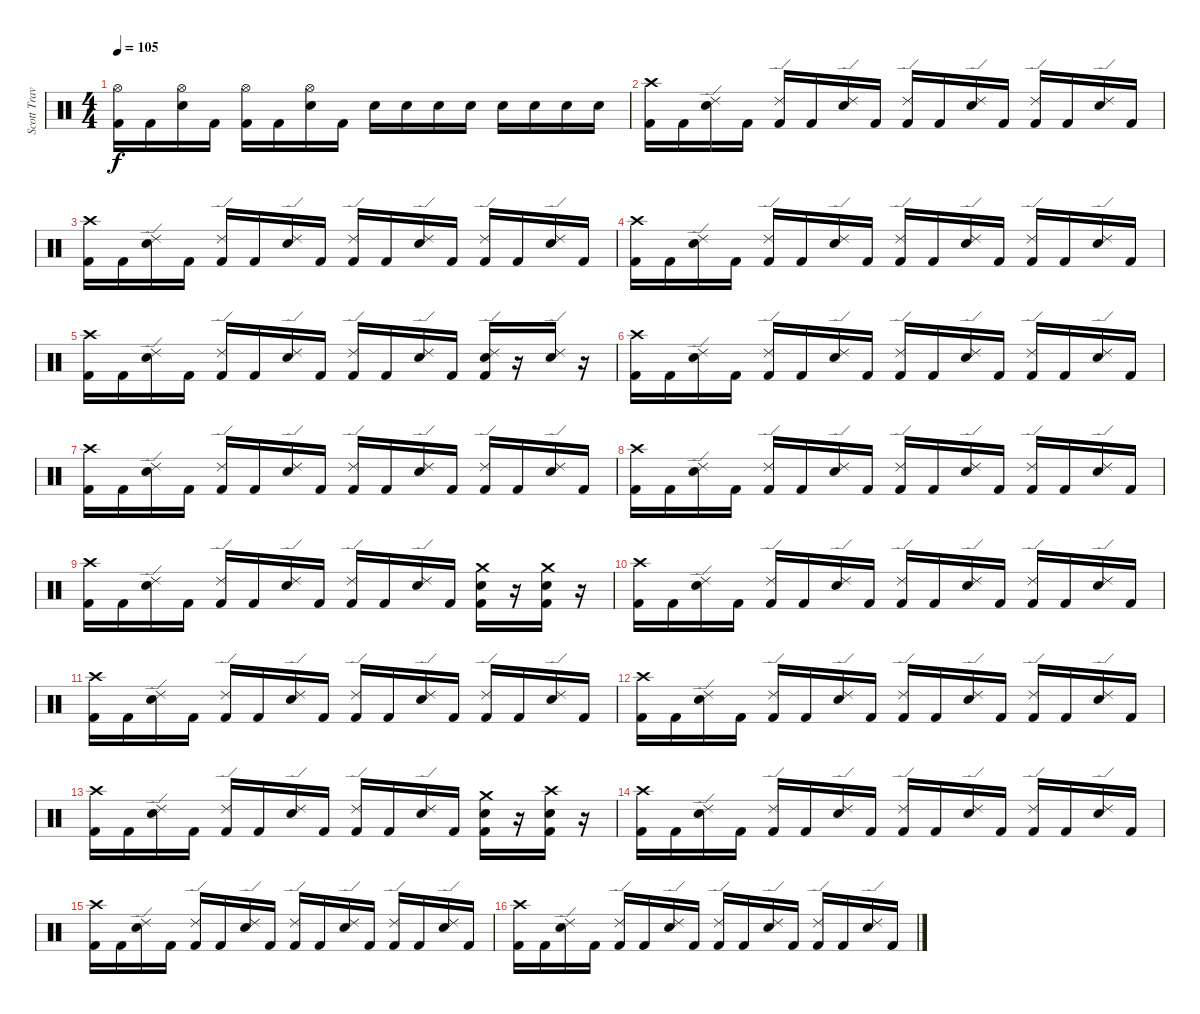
\track ("Scott Travis" "Scott Trav") {instrument percussion}
\staff {score}
\articulation defaults
\ts (4 4)
\tempo 105
\clef neutral
\ks c
("Hi-Hat (open)" "Kick (hit) 2").16{dy f} "Kick (hit) 2".16 ("Hi-Hat (open)" "Snare (hit) 2").16 "Kick (hit) 2".16 ("Hi-Hat (open)" "Kick (hit) 2").16 "Kick (hit) 2".16 ("Hi-Hat (open)" "Snare (hit) 2").16 "Kick (hit) 2".16 "Snare (hit) 2".16 "Snare (hit) 2".16 "Snare (hit) 2".16 "Snare (hit) 2".16 "Snare (hit) 2".16 "Snare (hit) 2".16 "Snare (hit) 2".16 "Snare (hit) 2".16 |
("Crash high (hit)" "Kick (hit) 2").16 "Kick (hit) 2".16 ("Ride (edge) 2" "Snare (hit) 2").16 "Kick (hit) 2".16 ("Ride (edge) 2" "Kick (hit) 2").16 "Kick (hit) 2".16 ("Ride (edge) 2" "Snare (hit) 2").16 "Kick (hit) 2".16 ("Ride (edge) 2" "Kick (hit) 2").16 "Kick (hit) 2".16 ("Ride (edge) 2" "Snare (hit) 2").16 "Kick (hit) 2".16 ("Ride (edge) 2" "Kick (hit) 2").16 "Kick (hit) 2".16 ("Ride (edge) 2" "Snare (hit) 2").16 "Kick (hit) 2".16 |
("Crash high (hit)" "Kick (hit) 2").16 "Kick (hit) 2".16 ("Ride (edge) 2" "Snare (hit) 2").16 "Kick (hit) 2".16 ("Ride (edge) 2" "Kick (hit) 2").16 "Kick (hit) 2".16 ("Ride (edge) 2" "Snare (hit) 2").16 "Kick (hit) 2".16 ("Ride (edge) 2" "Kick (hit) 2").16 "Kick (hit) 2".16 ("Ride (edge) 2" "Snare (hit) 2").16 "Kick (hit) 2".16 ("Ride (edge) 2" "Kick (hit) 2").16 "Kick (hit) 2".16 ("Ride (edge) 2" "Snare (hit) 2").16 "Kick (hit) 2".16 |
("Crash high (hit)" "Kick (hit) 2").16 "Kick (hit) 2".16 ("Ride (edge) 2" "Snare (hit) 2").16 "Kick (hit) 2".16 ("Ride (edge) 2" "Kick (hit) 2").16 "Kick (hit) 2".16 ("Ride (edge) 2" "Snare (hit) 2").16 "Kick (hit) 2".16 ("Ride (edge) 2" "Kick (hit) 2").16 "Kick (hit) 2".16 ("Ride (edge) 2" "Snare (hit) 2").16 "Kick (hit) 2".16 ("Ride (edge) 2" "Kick (hit) 2").16 "Kick (hit) 2".16 ("Ride (edge) 2" "Snare (hit) 2").16 "Kick (hit) 2".16 |
("Crash high (hit)" "Kick (hit) 2").16 "Kick (hit) 2".16 ("Ride (edge) 2" "Snare (hit) 2").16 "Kick (hit) 2".16 ("Ride (edge) 2" "Kick (hit) 2").16 "Kick (hit) 2".16 ("Ride (edge) 2" "Snare (hit) 2").16 "Kick (hit) 2".16 ("Ride (edge) 2" "Kick (hit) 2").16 "Kick (hit) 2".16 ("Ride (edge) 2" "Snare (hit) 2").16 "Kick (hit) 2".16 ("Ride (edge) 2" "Snare (hit) 2" "Kick (hit) 2").16 r.16 ("Ride (edge) 2" "Snare (hit) 2").16 r.16 |
("Crash high (hit)" "Kick (hit) 2").16 "Kick (hit) 2".16 ("Ride (edge) 2" "Snare (hit) 2").16 "Kick (hit) 2".16 ("Ride (edge) 2" "Kick (hit) 2").16 "Kick (hit) 2".16 ("Ride (edge) 2" "Snare (hit) 2").16 "Kick (hit) 2".16 ("Ride (edge) 2" "Kick (hit) 2").16 "Kick (hit) 2".16 ("Ride (edge) 2" "Snare (hit) 2").16 "Kick (hit) 2".16 ("Ride (edge) 2" "Kick (hit) 2").16 "Kick (hit) 2".16 ("Ride (edge) 2" "Snare (hit) 2").16 "Kick (hit) 2".16 |
("Crash high (hit)" "Kick (hit) 2").16 "Kick (hit) 2".16 ("Ride (edge) 2" "Snare (hit) 2").16 "Kick (hit) 2".16 ("Ride (edge) 2" "Kick (hit) 2").16 "Kick (hit) 2".16 ("Ride (edge) 2" "Snare (hit) 2").16 "Kick (hit) 2".16 ("Ride (edge) 2" "Kick (hit) 2").16 "Kick (hit) 2".16 ("Ride (edge) 2" "Snare (hit) 2").16 "Kick (hit) 2".16 ("Ride (edge) 2" "Kick (hit) 2").16 "Kick (hit) 2".16 ("Ride (edge) 2" "Snare (hit) 2").16 "Kick (hit) 2".16 |
("Crash high (hit)" "Kick (hit) 2").16 "Kick (hit) 2".16 ("Ride (edge) 2" "Snare (hit) 2").16 "Kick (hit) 2".16 ("Ride (edge) 2" "Kick (hit) 2").16 "Kick (hit) 2".16 ("Ride (edge) 2" "Snare (hit) 2").16 "Kick (hit) 2".16 ("Ride (edge) 2" "Kick (hit) 2").16 "Kick (hit) 2".16 ("Ride (edge) 2" "Snare (hit) 2").16 "Kick (hit) 2".16 ("Ride (edge) 2" "Kick (hit) 2").16 "Kick (hit) 2".16 ("Ride (edge) 2" "Snare (hit) 2").16 "Kick (hit) 2".16 |
("Crash high (hit)" "Kick (hit) 2").16 "Kick (hit) 2".16 ("Ride (edge) 2" "Snare (hit) 2").16 "Kick (hit) 2".16 ("Ride (edge) 2" "Kick (hit) 2").16 "Kick (hit) 2".16 ("Ride (edge) 2" "Snare (hit) 2").16 "Kick (hit) 2".16 ("Ride (edge) 2" "Kick (hit) 2").16 "Kick (hit) 2".16 ("Ride (edge) 2" "Snare (hit) 2").16 "Kick (hit) 2".16 ("Crash medium (hit)" "Snare (hit) 2" "Kick (hit) 2").16 r.16 ("Crash medium (hit)" "Snare (hit) 2" "Kick (hit) 2").16 r.16 |
("Crash high (hit)" "Kick (hit) 2").16 "Kick (hit) 2".16 ("Ride (edge) 2" "Snare (hit) 2").16 "Kick (hit) 2".16 ("Ride (edge) 2" "Kick (hit) 2").16 "Kick (hit) 2".16 ("Ride (edge) 2" "Snare (hit) 2").16 "Kick (hit) 2".16 ("Ride (edge) 2" "Kick (hit) 2").16 "Kick (hit) 2".16 ("Ride (edge) 2" "Snare (hit) 2").16 "Kick (hit) 2".16 ("Ride (edge) 2" "Kick (hit) 2").16 "Kick (hit) 2".16 ("Ride (edge) 2" "Snare (hit) 2").16 "Kick (hit) 2".16 |
("Crash high (hit)" "Kick (hit) 2").16 "Kick (hit) 2".16 ("Ride (edge) 2" "Snare (hit) 2").16 "Kick (hit) 2".16 ("Ride (edge) 2" "Kick (hit) 2").16 "Kick (hit) 2".16 ("Ride (edge) 2" "Snare (hit) 2").16 "Kick (hit) 2".16 ("Ride (edge) 2" "Kick (hit) 2").16 "Kick (hit) 2".16 ("Ride (edge) 2" "Snare (hit) 2").16 "Kick (hit) 2".16 ("Ride (edge) 2" "Kick (hit) 2").16 "Kick (hit) 2".16 ("Ride (edge) 2" "Snare (hit) 2").16 "Kick (hit) 2".16 |
("Crash high (hit)" "Kick (hit) 2").16 "Kick (hit) 2".16 ("Ride (edge) 2" "Snare (hit) 2").16 "Kick (hit) 2".16 ("Ride (edge) 2" "Kick (hit) 2").16 "Kick (hit) 2".16 ("Ride (edge) 2" "Snare (hit) 2").16 "Kick (hit) 2".16 ("Ride (edge) 2" "Kick (hit) 2").16 "Kick (hit) 2".16 ("Ride (edge) 2" "Snare (hit) 2").16 "Kick (hit) 2".16 ("Ride (edge) 2" "Kick (hit) 2").16 "Kick (hit) 2".16 ("Ride (edge) 2" "Snare (hit) 2").16 "Kick (hit) 2".16 |
("Crash high (hit)" "Kick (hit) 2").16 "Kick (hit) 2".16 ("Ride (edge) 2" "Snare (hit) 2").16 "Kick (hit) 2".16 ("Ride (edge) 2" "Kick (hit) 2").16 "Kick (hit) 2".16 ("Ride (edge) 2" "Snare (hit) 2").16 "Kick (hit) 2".16 ("Ride (edge) 2" "Kick (hit) 2").16 "Kick (hit) 2".16 ("Ride (edge) 2" "Snare (hit) 2").16 "Kick (hit) 2".16 ("Crash medium (hit)" "Snare (hit) 2" "Kick (hit) 2").16 r.16 ("Crash high (hit)" "Snare (hit) 2" "Kick (hit) 2").16 r.16 |
("Crash high (hit)" "Kick (hit) 2").16 "Kick (hit) 2".16 ("Ride (edge) 2" "Snare (hit) 2").16 "Kick (hit) 2".16 ("Ride (edge) 2" "Kick (hit) 2").16 "Kick (hit) 2".16 ("Ride (edge) 2" "Snare (hit) 2").16 "Kick (hit) 2".16 ("Ride (edge) 2" "Kick (hit) 2").16 "Kick (hit) 2".16 ("Ride (edge) 2" "Snare (hit) 2").16 "Kick (hit) 2".16 ("Ride (edge) 2" "Kick (hit) 2").16 "Kick (hit) 2".16 ("Ride (edge) 2" "Snare (hit) 2").16 "Kick (hit) 2".16 |
("Crash high (hit)" "Kick (hit) 2").16 "Kick (hit) 2".16 ("Ride (edge) 2" "Snare (hit) 2").16 "Kick (hit) 2".16 ("Ride (edge) 2" "Kick (hit) 2").16 "Kick (hit) 2".16 ("Ride (edge) 2" "Snare (hit) 2").16 "Kick (hit) 2".16 ("Ride (edge) 2" "Kick (hit) 2").16 "Kick (hit) 2".16 ("Ride (edge) 2" "Snare (hit) 2").16 "Kick (hit) 2".16 ("Ride (edge) 2" "Kick (hit) 2").16 "Kick (hit) 2".16 ("Ride (edge) 2" "Snare (hit) 2").16 "Kick (hit) 2".16 |
("Crash high (hit)" "Kick (hit) 2").16 "Kick (hit) 2".16 ("Ride (edge) 2" "Snare (hit) 2").16 "Kick (hit) 2".16 ("Ride (edge) 2" "Kick (hit) 2").16 "Kick (hit) 2".16 ("Ride (edge) 2" "Snare (hit) 2").16 "Kick (hit) 2".16 ("Ride (edge) 2" "Kick (hit) 2").16 "Kick (hit) 2".16 ("Ride (edge) 2" "Snare (hit) 2").16 "Kick (hit) 2".16 ("Ride (edge) 2" "Kick (hit) 2").16 "Kick (hit) 2".16 ("Ride (edge) 2" "Snare (hit) 2").16 "Kick (hit) 2".16
